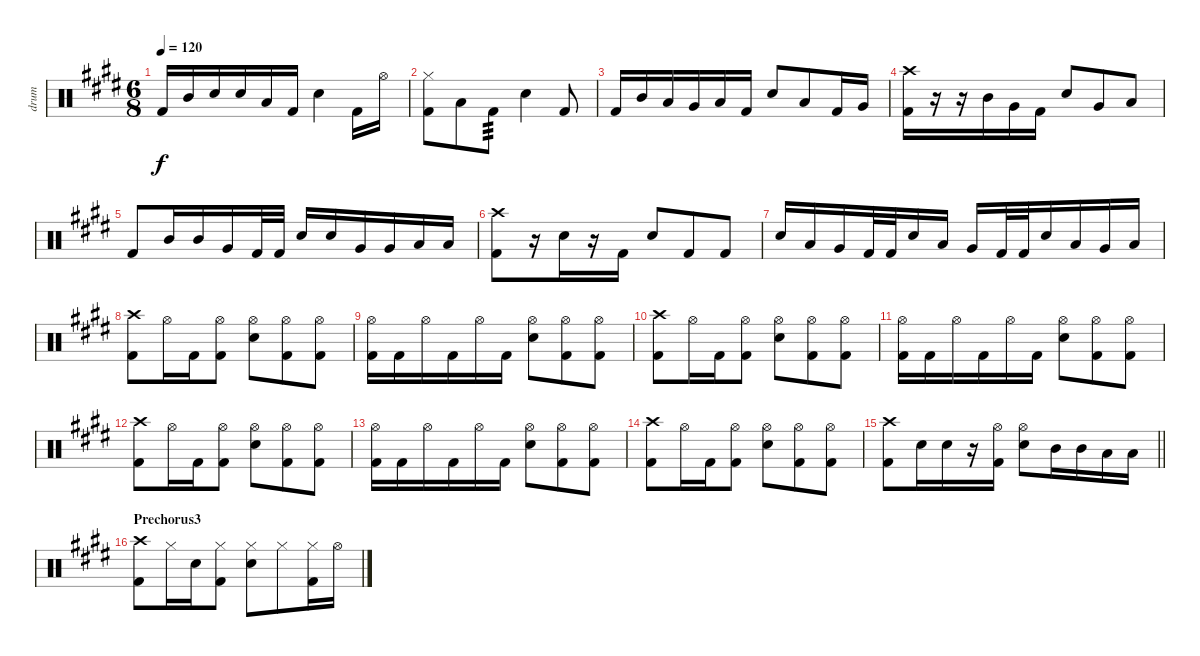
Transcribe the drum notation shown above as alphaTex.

\track ("drum" "drum") {instrument percussion}
\staff {score}
\articulation defaults
\ts (6 8)
\tempo 120
\clef neutral
\ks e "Kick (hit) 2".16{dy f} "Mid Tom (hit)".16 "Snare (hit) 2".16 "Snare (hit) 2".16 "Low Tom (hit)".16 "Kick (hit) 2".16 "Snare (hit) 2".4 "Kick (hit) 2".16 "Hi-Hat (open)".16
|
("Hi-Hat (closed)" "Kick (hit) 2").8 "Low Floor Tom (hit)".8 "Kick (hit) 2".8{tp 3} "Snare (hit) 2".4 "Kick (hit) 2".8 |
"Kick (hit) 2".16 "Mid Tom (hit)".16 "Low Tom (hit)".16 "Very Low Tom (hit)".16 "Low Floor Tom (hit)".16 "Kick (hit) 2".16 "Snare (hit) 2".8 "Low Tom (hit)".8 "Kick (hit) 2".16 "Very Low Tom (hit)".16 |
("Crash high (hit)" "Kick (hit) 2").16 r.16 r.16 "Mid Tom (hit)".16 "Very Low Tom (hit)".16 "Kick (hit) 2".16 "Snare (hit) 2".8 "Very Low Tom (hit)".8 "Low Floor Tom (hit)".8 |
"Kick (hit) 2".8 "Mid Tom (hit)".16 "Mid Tom (hit)".16 "Very Low Tom (hit)".16 "Kick (hit) 2".32 "Kick (hit) 2".32 "Snare (hit) 2".16 "Snare (hit) 2".16 "Very Low Tom (hit)".16 "Very Low Tom (hit)".16 "Low Floor Tom (hit)".16 "Low Floor Tom (hit)".16 |
("Crash high (hit)" "Kick (hit) 2").8 r.16 "Snare (hit) 2".16 r.16 "Kick (hit) 2".16 "Snare (hit) 2".8 "Kick (hit) 2".8 "Kick (hit) 2".8 |
"Snare (hit) 2".16 "Low Tom (hit)".16 "Very Low Tom (hit)".16 "Kick (hit) 2".32 "Kick (hit) 2".32 "Snare (hit) 2".16 "Low Tom (hit)".16 "Very Low Tom (hit)".16 "Kick (hit) 2".32 "Kick (hit) 2".32 "Snare (hit) 2".16 "Low Tom (hit)".16 "Very Low Tom (hit)".16 "Low Floor Tom (hit)".16 |
("Crash high (hit)" "Kick (hit) 2").8 "Hi-Hat (open)".16 "Kick (hit) 2".16 ("Hi-Hat (open)" "Kick (hit) 2").8 ("Hi-Hat (open)" "Snare (hit) 2").8 ("Hi-Hat (open)" "Kick (hit) 2").8 ("Hi-Hat (open)" "Kick (hit) 2").8 |
("Hi-Hat (open)" "Kick (hit) 2").16 "Kick (hit) 2".16 "Hi-Hat (open)".16 "Kick (hit) 2".16 "Hi-Hat (open)".16 "Kick (hit) 2".16 ("Hi-Hat (open)" "Snare (hit) 2").8 ("Hi-Hat (open)" "Kick (hit) 2").8 ("Hi-Hat (open)" "Kick (hit) 2").8 |
("Crash high (hit)" "Kick (hit) 2").8 "Hi-Hat (open)".16 "Kick (hit) 2".16 ("Hi-Hat (open)" "Kick (hit) 2").8 ("Hi-Hat (open)" "Snare (hit) 2").8 ("Hi-Hat (open)" "Kick (hit) 2").8 ("Hi-Hat (open)" "Kick (hit) 2").8 |
("Hi-Hat (open)" "Kick (hit) 2").16 "Kick (hit) 2".16 "Hi-Hat (open)".16 "Kick (hit) 2".16 "Hi-Hat (open)".16 "Kick (hit) 2".16 ("Hi-Hat (open)" "Snare (hit) 2").8 ("Hi-Hat (open)" "Kick (hit) 2").8 ("Hi-Hat (open)" "Kick (hit) 2").8 |
("Crash high (hit)" "Kick (hit) 2").8 "Hi-Hat (open)".16 "Kick (hit) 2".16 ("Hi-Hat (open)" "Kick (hit) 2").8 ("Hi-Hat (open)" "Snare (hit) 2").8 ("Hi-Hat (open)" "Kick (hit) 2").8 ("Hi-Hat (open)" "Kick (hit) 2").8 |
("Hi-Hat (open)" "Kick (hit) 2").16 "Kick (hit) 2".16 "Hi-Hat (open)".16 "Kick (hit) 2".16 "Hi-Hat (open)".16 "Kick (hit) 2".16 ("Hi-Hat (open)" "Snare (hit) 2").8 ("Hi-Hat (open)" "Kick (hit) 2").8 ("Hi-Hat (open)" "Kick (hit) 2").8 |
("Crash high (hit)" "Kick (hit) 2").8 "Hi-Hat (open)".16 "Kick (hit) 2".16 ("Hi-Hat (open)" "Kick (hit) 2").8 ("Hi-Hat (open)" "Snare (hit) 2").8 ("Hi-Hat (open)" "Kick (hit) 2").8 ("Hi-Hat (open)" "Kick (hit) 2").8 |
\barLineRight lightlight
("Crash high (hit)" "Kick (hit) 2").8 "Snare (hit) 2".16 "Snare (hit) 2".16 r.16 ("Hi-Hat (open)" "Kick (hit) 2").16 ("Hi-Hat (open)" "Snare (hit) 2").8 "Mid Tom (hit)".16 "Mid Tom (hit)".16 "Low Tom (hit)".16 "Low Tom (hit)".16 |
\section ("" "Prechorus3")
("Crash high (hit)" "Kick (hit) 2").8 "Hi-Hat (closed)".16 "Snare (hit) 2".16 ("Hi-Hat (closed)" "Kick (hit) 2").8 ("Hi-Hat (closed)" "Snare (hit) 2").8 "Hi-Hat (closed)".8 ("Hi-Hat (closed)" "Kick (hit) 2").16 "Hi-Hat (open)".16
